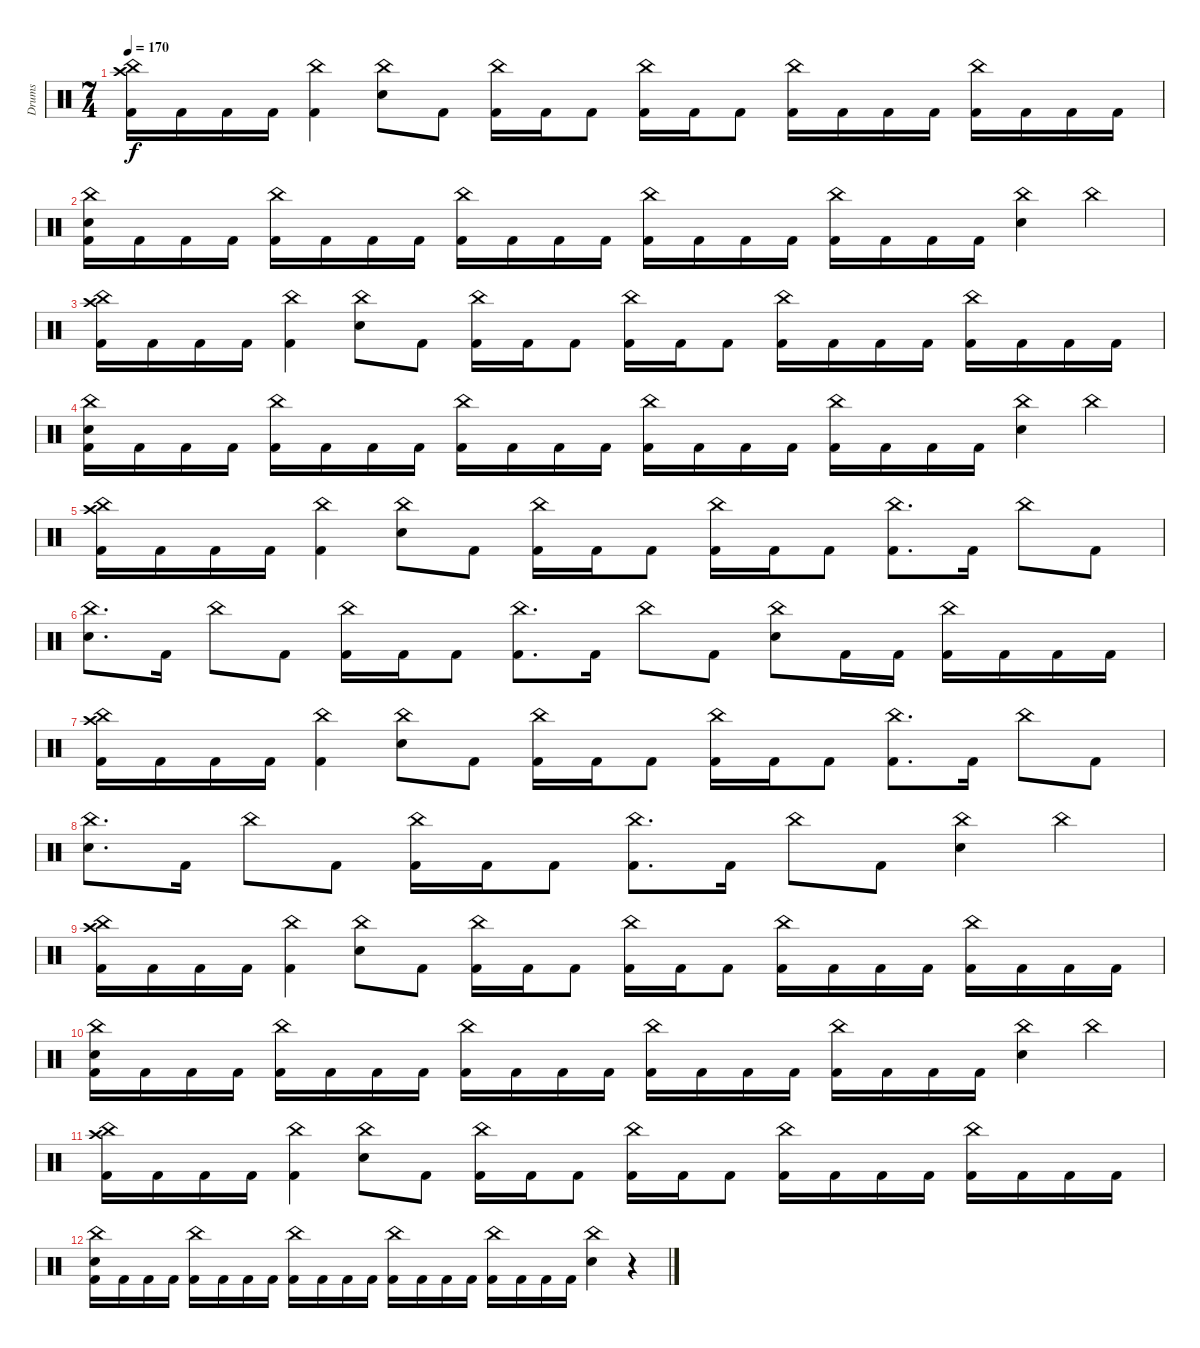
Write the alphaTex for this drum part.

\track ("Drums" "Drums") {instrument percussion}
\staff {score}
\articulation defaults
\ts (7 4)
\tempo 170
\clef neutral
\ks c
("China (hit)" "Crash high (hit)" "Kick (hit) 2").16{dy f} "Kick (hit) 2".16 "Kick (hit) 2".16 "Kick (hit) 2".16 ("China (hit)" "Kick (hit) 2").4 ("China (hit)" "Electric Snare (hit)").8 "Kick (hit) 2".8 ("China (hit)" "Kick (hit) 2").16 "Kick (hit) 2".16 "Kick (hit) 2".8 ("China (hit)" "Kick (hit) 2").16 "Kick (hit) 2".16 "Kick (hit) 2".8 ("China (hit)" "Kick (hit) 2").16 "Kick (hit) 2".16 "Kick (hit) 2".16 "Kick (hit) 2".16 ("China (hit)" "Kick (hit) 2").16 "Kick (hit) 2".16 "Kick (hit) 2".16 "Kick (hit) 2".16 |
("China (hit)" "Electric Snare (hit)" "Kick (hit) 2").16 "Kick (hit) 2".16 "Kick (hit) 2".16 "Kick (hit) 2".16 ("China (hit)" "Kick (hit) 2").16 "Kick (hit) 2".16 "Kick (hit) 2".16 "Kick (hit) 2".16 ("China (hit)" "Kick (hit) 2").16 "Kick (hit) 2".16 "Kick (hit) 2".16 "Kick (hit) 2".16 ("China (hit)" "Kick (hit) 2").16 "Kick (hit) 2".16 "Kick (hit) 2".16 "Kick (hit) 2".16 ("China (hit)" "Kick (hit) 2").16 "Kick (hit) 2".16 "Kick (hit) 2".16 "Kick (hit) 2".16 ("China (hit)" "Electric Snare (hit)").4 "China (hit)".4 |
("China (hit)" "Crash high (hit)" "Kick (hit) 2").16 "Kick (hit) 2".16 "Kick (hit) 2".16 "Kick (hit) 2".16 ("China (hit)" "Kick (hit) 2").4 ("China (hit)" "Electric Snare (hit)").8 "Kick (hit) 2".8 ("China (hit)" "Kick (hit) 2").16 "Kick (hit) 2".16 "Kick (hit) 2".8 ("China (hit)" "Kick (hit) 2").16 "Kick (hit) 2".16 "Kick (hit) 2".8 ("China (hit)" "Kick (hit) 2").16 "Kick (hit) 2".16 "Kick (hit) 2".16 "Kick (hit) 2".16 ("China (hit)" "Kick (hit) 2").16 "Kick (hit) 2".16 "Kick (hit) 2".16 "Kick (hit) 2".16 |
("China (hit)" "Electric Snare (hit)" "Kick (hit) 2").16 "Kick (hit) 2".16 "Kick (hit) 2".16 "Kick (hit) 2".16 ("China (hit)" "Kick (hit) 2").16 "Kick (hit) 2".16 "Kick (hit) 2".16 "Kick (hit) 2".16 ("China (hit)" "Kick (hit) 2").16 "Kick (hit) 2".16 "Kick (hit) 2".16 "Kick (hit) 2".16 ("China (hit)" "Kick (hit) 2").16 "Kick (hit) 2".16 "Kick (hit) 2".16 "Kick (hit) 2".16 ("China (hit)" "Kick (hit) 2").16 "Kick (hit) 2".16 "Kick (hit) 2".16 "Kick (hit) 2".16 ("China (hit)" "Electric Snare (hit)").4 "China (hit)".4 |
("China (hit)" "Crash high (hit)" "Kick (hit) 2").16 "Kick (hit) 2".16 "Kick (hit) 2".16 "Kick (hit) 2".16 ("China (hit)" "Kick (hit) 2").4 ("China (hit)" "Electric Snare (hit)").8 "Kick (hit) 2".8 ("China (hit)" "Kick (hit) 2").16 "Kick (hit) 2".16 "Kick (hit) 2".8 ("China (hit)" "Kick (hit) 2").16 "Kick (hit) 2".16 "Kick (hit) 2".8 ("China (hit)" "Kick (hit) 2").8{d} "Kick (hit) 2".16 "China (hit)".8 "Kick (hit) 2".8 |
("China (hit)" "Electric Snare (hit)").8{d} "Kick (hit) 2".16 "China (hit)".8 "Kick (hit) 2".8 ("China (hit)" "Kick (hit) 2").16 "Kick (hit) 2".16 "Kick (hit) 2".8 ("China (hit)" "Kick (hit) 2").8{d} "Kick (hit) 2".16 "China (hit)".8 "Kick (hit) 2".8 ("China (hit)" "Electric Snare (hit)").8 "Kick (hit) 2".16 "Kick (hit) 2".16 ("China (hit)" "Kick (hit) 2").16 "Kick (hit) 2".16 "Kick (hit) 2".16 "Kick (hit) 2".16 |
("China (hit)" "Crash high (hit)" "Kick (hit) 2").16 "Kick (hit) 2".16 "Kick (hit) 2".16 "Kick (hit) 2".16 ("China (hit)" "Kick (hit) 2").4 ("China (hit)" "Electric Snare (hit)").8 "Kick (hit) 2".8 ("China (hit)" "Kick (hit) 2").16 "Kick (hit) 2".16 "Kick (hit) 2".8 ("China (hit)" "Kick (hit) 2").16 "Kick (hit) 2".16 "Kick (hit) 2".8 ("China (hit)" "Kick (hit) 2").8{d} "Kick (hit) 2".16 "China (hit)".8 "Kick (hit) 2".8 |
("China (hit)" "Electric Snare (hit)").8{d} "Kick (hit) 2".16 "China (hit)".8 "Kick (hit) 2".8 ("China (hit)" "Kick (hit) 2").16 "Kick (hit) 2".16 "Kick (hit) 2".8 ("China (hit)" "Kick (hit) 2").8{d} "Kick (hit) 2".16 "China (hit)".8 "Kick (hit) 2".8 ("China (hit)" "Electric Snare (hit)").4 "China (hit)".4 |
("China (hit)" "Crash high (hit)" "Kick (hit) 2").16 "Kick (hit) 2".16 "Kick (hit) 2".16 "Kick (hit) 2".16 ("China (hit)" "Kick (hit) 2").4 ("China (hit)" "Electric Snare (hit)").8 "Kick (hit) 2".8 ("China (hit)" "Kick (hit) 2").16 "Kick (hit) 2".16 "Kick (hit) 2".8 ("China (hit)" "Kick (hit) 2").16 "Kick (hit) 2".16 "Kick (hit) 2".8 ("China (hit)" "Kick (hit) 2").16 "Kick (hit) 2".16 "Kick (hit) 2".16 "Kick (hit) 2".16 ("China (hit)" "Kick (hit) 2").16 "Kick (hit) 2".16 "Kick (hit) 2".16 "Kick (hit) 2".16 |
("China (hit)" "Electric Snare (hit)" "Kick (hit) 2").16 "Kick (hit) 2".16 "Kick (hit) 2".16 "Kick (hit) 2".16 ("China (hit)" "Kick (hit) 2").16 "Kick (hit) 2".16 "Kick (hit) 2".16 "Kick (hit) 2".16 ("China (hit)" "Kick (hit) 2").16 "Kick (hit) 2".16 "Kick (hit) 2".16 "Kick (hit) 2".16 ("China (hit)" "Kick (hit) 2").16 "Kick (hit) 2".16 "Kick (hit) 2".16 "Kick (hit) 2".16 ("China (hit)" "Kick (hit) 2").16 "Kick (hit) 2".16 "Kick (hit) 2".16 "Kick (hit) 2".16 ("China (hit)" "Electric Snare (hit)").4 "China (hit)".4 |
("China (hit)" "Crash high (hit)" "Kick (hit) 2").16 "Kick (hit) 2".16 "Kick (hit) 2".16 "Kick (hit) 2".16 ("China (hit)" "Kick (hit) 2").4 ("China (hit)" "Electric Snare (hit)").8 "Kick (hit) 2".8 ("China (hit)" "Kick (hit) 2").16 "Kick (hit) 2".16 "Kick (hit) 2".8 ("China (hit)" "Kick (hit) 2").16 "Kick (hit) 2".16 "Kick (hit) 2".8 ("China (hit)" "Kick (hit) 2").16 "Kick (hit) 2".16 "Kick (hit) 2".16 "Kick (hit) 2".16 ("China (hit)" "Kick (hit) 2").16 "Kick (hit) 2".16 "Kick (hit) 2".16 "Kick (hit) 2".16 |
("China (hit)" "Electric Snare (hit)" "Kick (hit) 2").16 "Kick (hit) 2".16 "Kick (hit) 2".16 "Kick (hit) 2".16 ("China (hit)" "Kick (hit) 2").16 "Kick (hit) 2".16 "Kick (hit) 2".16 "Kick (hit) 2".16 ("China (hit)" "Kick (hit) 2").16 "Kick (hit) 2".16 "Kick (hit) 2".16 "Kick (hit) 2".16 ("China (hit)" "Kick (hit) 2").16 "Kick (hit) 2".16 "Kick (hit) 2".16 "Kick (hit) 2".16 ("China (hit)" "Kick (hit) 2").16 "Kick (hit) 2".16 "Kick (hit) 2".16 "Kick (hit) 2".16 ("China (hit)" "Electric Snare (hit)").4 r.4
